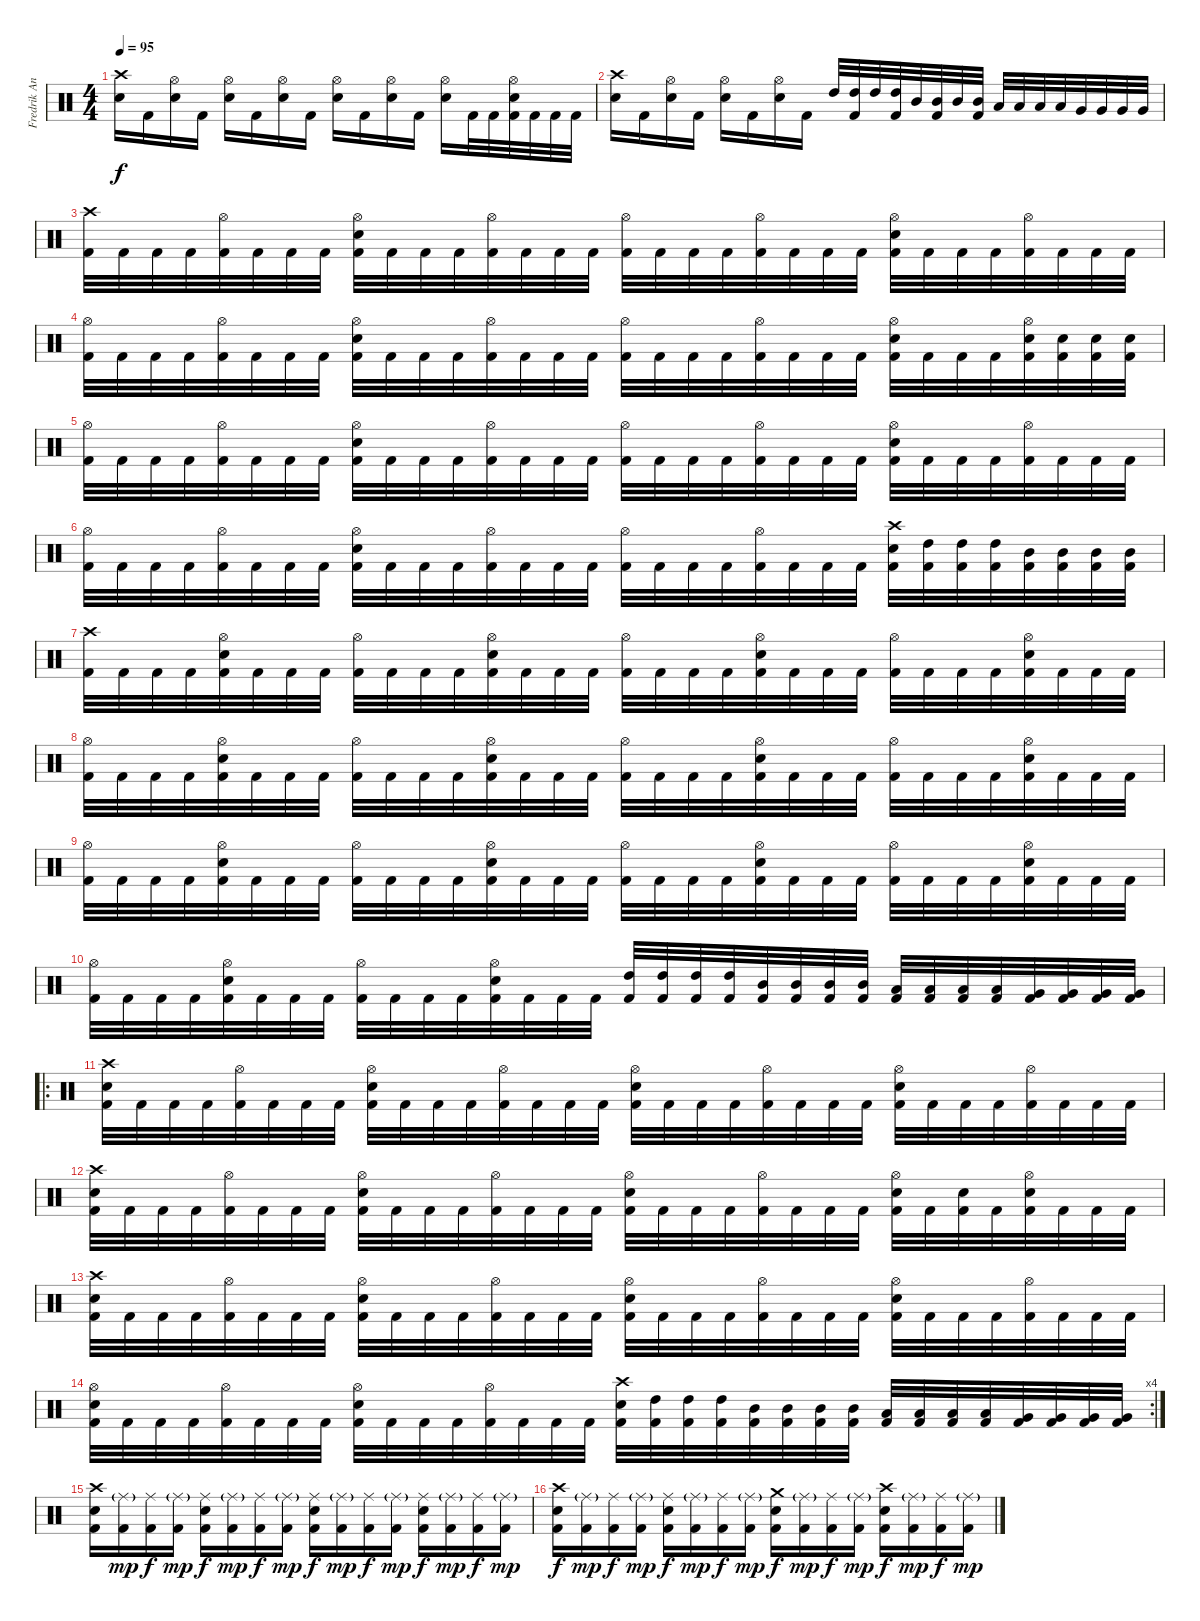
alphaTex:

\track ("Fredrik Andersson" "Fredrik An") {instrument percussion}
\staff {score}
\articulation defaults
\ts (4 4)
\tempo 95
\clef neutral
\ks c
("Crash high (hit)" "Electric Snare (hit)").16{dy f} "Kick (hit) 2".16 ("Hi-Hat (open)" "Electric Snare (hit)").16 "Kick (hit) 2".16 ("Hi-Hat (open)" "Electric Snare (hit)").16 "Kick (hit) 2".16 ("Hi-Hat (open)" "Electric Snare (hit)").16 "Kick (hit) 2".16 ("Hi-Hat (open)" "Electric Snare (hit)").16 "Kick (hit) 2".16 ("Hi-Hat (open)" "Electric Snare (hit)").16 "Kick (hit) 2".16 ("Hi-Hat (open)" "Electric Snare (hit)").16 "Kick (hit) 2".32 "Kick (hit) 2".32 ("Hi-Hat (open)" "Electric Snare (hit)" "Kick (hit) 2").32 "Kick (hit) 2".32 "Kick (hit) 2".32 "Kick (hit) 2".32 |
("Crash high (hit)" "Electric Snare (hit)").16 "Kick (hit) 2".16 ("Hi-Hat (open)" "Electric Snare (hit)").16 "Kick (hit) 2".16 ("Hi-Hat (open)" "Electric Snare (hit)").16 "Kick (hit) 2".16 ("Hi-Hat (open)" "Electric Snare (hit)").16 "Kick (hit) 2".16 "High Tom (hit)".32 ("High Tom (hit)" "Kick (hit) 2").32 "High Tom (hit)".32 ("High Tom (hit)" "Kick (hit) 2").32 "Mid Tom (hit)".32 ("Mid Tom (hit)" "Kick (hit) 2").32 "Mid Tom (hit)".32 ("Mid Tom (hit)" "Kick (hit) 2").32 "Low Tom (hit)".32 "Low Tom (hit)".32 "Low Tom (hit)".32 "Low Tom (hit)".32 "Very Low Tom (hit)".32 "Very Low Tom (hit)".32 "Very Low Tom (hit)".32 "Very Low Tom (hit)".32 |
("Crash high (hit)" "Kick (hit) 2").32 "Kick (hit) 2".32 "Kick (hit) 2".32 "Kick (hit) 2".32 ("Hi-Hat (open)" "Kick (hit) 2").32 "Kick (hit) 2".32 "Kick (hit) 2".32 "Kick (hit) 2".32 ("Hi-Hat (open)" "Electric Snare (hit)" "Kick (hit) 2").32 "Kick (hit) 2".32 "Kick (hit) 2".32 "Kick (hit) 2".32 ("Hi-Hat (open)" "Kick (hit) 2").32 "Kick (hit) 2".32 "Kick (hit) 2".32 "Kick (hit) 2".32 ("Hi-Hat (open)" "Kick (hit) 2").32 "Kick (hit) 2".32 "Kick (hit) 2".32 "Kick (hit) 2".32 ("Hi-Hat (open)" "Kick (hit) 2").32 "Kick (hit) 2".32 "Kick (hit) 2".32 "Kick (hit) 2".32 ("Hi-Hat (open)" "Electric Snare (hit)" "Kick (hit) 2").32 "Kick (hit) 2".32 "Kick (hit) 2".32 "Kick (hit) 2".32 ("Hi-Hat (open)" "Kick (hit) 2").32 "Kick (hit) 2".32 "Kick (hit) 2".32 "Kick (hit) 2".32 |
("Hi-Hat (open)" "Kick (hit) 2").32 "Kick (hit) 2".32 "Kick (hit) 2".32 "Kick (hit) 2".32 ("Hi-Hat (open)" "Kick (hit) 2").32 "Kick (hit) 2".32 "Kick (hit) 2".32 "Kick (hit) 2".32 ("Hi-Hat (open)" "Electric Snare (hit)" "Kick (hit) 2").32 "Kick (hit) 2".32 "Kick (hit) 2".32 "Kick (hit) 2".32 ("Hi-Hat (open)" "Kick (hit) 2").32 "Kick (hit) 2".32 "Kick (hit) 2".32 "Kick (hit) 2".32 ("Hi-Hat (open)" "Kick (hit) 2").32 "Kick (hit) 2".32 "Kick (hit) 2".32 "Kick (hit) 2".32 ("Hi-Hat (open)" "Kick (hit) 2").32 "Kick (hit) 2".32 "Kick (hit) 2".32 "Kick (hit) 2".32 ("Hi-Hat (open)" "Electric Snare (hit)" "Kick (hit) 2").32 "Kick (hit) 2".32 "Kick (hit) 2".32 "Kick (hit) 2".32 ("Hi-Hat (open)" "Electric Snare (hit)" "Kick (hit) 2").32 ("Electric Snare (hit)" "Kick (hit) 2").32 ("Electric Snare (hit)" "Kick (hit) 2").32 ("Electric Snare (hit)" "Kick (hit) 2").32 |
("Hi-Hat (open)" "Kick (hit) 2").32 "Kick (hit) 2".32 "Kick (hit) 2".32 "Kick (hit) 2".32 ("Hi-Hat (open)" "Kick (hit) 2").32 "Kick (hit) 2".32 "Kick (hit) 2".32 "Kick (hit) 2".32 ("Hi-Hat (open)" "Electric Snare (hit)" "Kick (hit) 2").32 "Kick (hit) 2".32 "Kick (hit) 2".32 "Kick (hit) 2".32 ("Hi-Hat (open)" "Kick (hit) 2").32 "Kick (hit) 2".32 "Kick (hit) 2".32 "Kick (hit) 2".32 ("Hi-Hat (open)" "Kick (hit) 2").32 "Kick (hit) 2".32 "Kick (hit) 2".32 "Kick (hit) 2".32 ("Hi-Hat (open)" "Kick (hit) 2").32 "Kick (hit) 2".32 "Kick (hit) 2".32 "Kick (hit) 2".32 ("Hi-Hat (open)" "Electric Snare (hit)" "Kick (hit) 2").32 "Kick (hit) 2".32 "Kick (hit) 2".32 "Kick (hit) 2".32 ("Hi-Hat (open)" "Kick (hit) 2").32 "Kick (hit) 2".32 "Kick (hit) 2".32 "Kick (hit) 2".32 |
("Hi-Hat (open)" "Kick (hit) 2").32 "Kick (hit) 2".32 "Kick (hit) 2".32 "Kick (hit) 2".32 ("Hi-Hat (open)" "Kick (hit) 2").32 "Kick (hit) 2".32 "Kick (hit) 2".32 "Kick (hit) 2".32 ("Hi-Hat (open)" "Electric Snare (hit)" "Kick (hit) 2").32 "Kick (hit) 2".32 "Kick (hit) 2".32 "Kick (hit) 2".32 ("Hi-Hat (open)" "Kick (hit) 2").32 "Kick (hit) 2".32 "Kick (hit) 2".32 "Kick (hit) 2".32 ("Hi-Hat (open)" "Kick (hit) 2").32 "Kick (hit) 2".32 "Kick (hit) 2".32 "Kick (hit) 2".32 ("Hi-Hat (open)" "Kick (hit) 2").32 "Kick (hit) 2".32 "Kick (hit) 2".32 "Kick (hit) 2".32 ("Crash high (hit)" "Electric Snare (hit)" "Kick (hit) 2").32 ("High Tom (hit)" "Kick (hit) 2").32 ("High Tom (hit)" "Kick (hit) 2").32 ("High Tom (hit)" "Kick (hit) 2").32 ("Mid Tom (hit)" "Kick (hit) 2").32 ("Mid Tom (hit)" "Kick (hit) 2").32 ("Mid Tom (hit)" "Kick (hit) 2").32 ("Mid Tom (hit)" "Kick (hit) 2").32 |
("Crash high (hit)" "Kick (hit) 2").32 "Kick (hit) 2".32 "Kick (hit) 2".32 "Kick (hit) 2".32 ("Hi-Hat (open)" "Electric Snare (hit)" "Kick (hit) 2").32 "Kick (hit) 2".32 "Kick (hit) 2".32 "Kick (hit) 2".32 ("Hi-Hat (open)" "Kick (hit) 2").32 "Kick (hit) 2".32 "Kick (hit) 2".32 "Kick (hit) 2".32 ("Hi-Hat (open)" "Electric Snare (hit)" "Kick (hit) 2").32 "Kick (hit) 2".32 "Kick (hit) 2".32 "Kick (hit) 2".32 ("Hi-Hat (open)" "Kick (hit) 2").32 "Kick (hit) 2".32 "Kick (hit) 2".32 "Kick (hit) 2".32 ("Hi-Hat (open)" "Electric Snare (hit)" "Kick (hit) 2").32 "Kick (hit) 2".32 "Kick (hit) 2".32 "Kick (hit) 2".32 ("Hi-Hat (open)" "Kick (hit) 2").32 "Kick (hit) 2".32 "Kick (hit) 2".32 "Kick (hit) 2".32 ("Hi-Hat (open)" "Electric Snare (hit)" "Kick (hit) 2").32 "Kick (hit) 2".32 "Kick (hit) 2".32 "Kick (hit) 2".32 |
("Hi-Hat (open)" "Kick (hit) 2").32 "Kick (hit) 2".32 "Kick (hit) 2".32 "Kick (hit) 2".32 ("Hi-Hat (open)" "Electric Snare (hit)" "Kick (hit) 2").32 "Kick (hit) 2".32 "Kick (hit) 2".32 "Kick (hit) 2".32 ("Hi-Hat (open)" "Kick (hit) 2").32 "Kick (hit) 2".32 "Kick (hit) 2".32 "Kick (hit) 2".32 ("Hi-Hat (open)" "Electric Snare (hit)" "Kick (hit) 2").32 "Kick (hit) 2".32 "Kick (hit) 2".32 "Kick (hit) 2".32 ("Hi-Hat (open)" "Kick (hit) 2").32 "Kick (hit) 2".32 "Kick (hit) 2".32 "Kick (hit) 2".32 ("Hi-Hat (open)" "Electric Snare (hit)" "Kick (hit) 2").32 "Kick (hit) 2".32 "Kick (hit) 2".32 "Kick (hit) 2".32 ("Hi-Hat (open)" "Kick (hit) 2").32 "Kick (hit) 2".32 "Kick (hit) 2".32 "Kick (hit) 2".32 ("Hi-Hat (open)" "Electric Snare (hit)" "Kick (hit) 2").32 "Kick (hit) 2".32 "Kick (hit) 2".32 "Kick (hit) 2".32 |
("Hi-Hat (open)" "Kick (hit) 2").32 "Kick (hit) 2".32 "Kick (hit) 2".32 "Kick (hit) 2".32 ("Hi-Hat (open)" "Electric Snare (hit)" "Kick (hit) 2").32 "Kick (hit) 2".32 "Kick (hit) 2".32 "Kick (hit) 2".32 ("Hi-Hat (open)" "Kick (hit) 2").32 "Kick (hit) 2".32 "Kick (hit) 2".32 "Kick (hit) 2".32 ("Hi-Hat (open)" "Electric Snare (hit)" "Kick (hit) 2").32 "Kick (hit) 2".32 "Kick (hit) 2".32 "Kick (hit) 2".32 ("Hi-Hat (open)" "Kick (hit) 2").32 "Kick (hit) 2".32 "Kick (hit) 2".32 "Kick (hit) 2".32 ("Hi-Hat (open)" "Electric Snare (hit)" "Kick (hit) 2").32 "Kick (hit) 2".32 "Kick (hit) 2".32 "Kick (hit) 2".32 ("Hi-Hat (open)" "Kick (hit) 2").32 "Kick (hit) 2".32 "Kick (hit) 2".32 "Kick (hit) 2".32 ("Hi-Hat (open)" "Electric Snare (hit)" "Kick (hit) 2").32 "Kick (hit) 2".32 "Kick (hit) 2".32 "Kick (hit) 2".32 |
("Hi-Hat (open)" "Kick (hit) 2").32 "Kick (hit) 2".32 "Kick (hit) 2".32 "Kick (hit) 2".32 ("Hi-Hat (open)" "Electric Snare (hit)" "Kick (hit) 2").32 "Kick (hit) 2".32 "Kick (hit) 2".32 "Kick (hit) 2".32 ("Hi-Hat (open)" "Kick (hit) 2").32 "Kick (hit) 2".32 "Kick (hit) 2".32 "Kick (hit) 2".32 ("Hi-Hat (open)" "Electric Snare (hit)" "Kick (hit) 2").32 "Kick (hit) 2".32 "Kick (hit) 2".32 "Kick (hit) 2".32 ("High Tom (hit)" "Kick (hit) 2").32 ("High Tom (hit)" "Kick (hit) 2").32 ("High Tom (hit)" "Kick (hit) 2").32 ("High Tom (hit)" "Kick (hit) 2").32 ("Mid Tom (hit)" "Kick (hit) 2").32 ("Mid Tom (hit)" "Kick (hit) 2").32 ("Mid Tom (hit)" "Kick (hit) 2").32 ("Mid Tom (hit)" "Kick (hit) 2").32 ("Low Tom (hit)" "Kick (hit) 2").32 ("Low Tom (hit)" "Kick (hit) 2").32 ("Low Tom (hit)" "Kick (hit) 2").32 ("Low Tom (hit)" "Kick (hit) 2").32 ("Very Low Tom (hit)" "Kick (hit) 2").32 ("Very Low Tom (hit)" "Kick (hit) 2").32 ("Very Low Tom (hit)" "Kick (hit) 2").32 ("Very Low Tom (hit)" "Kick (hit) 2").32 |
\ro
("Crash high (hit)" "Electric Snare (hit)" "Kick (hit) 2").32 "Kick (hit) 2".32 "Kick (hit) 2".32 "Kick (hit) 2".32 ("Hi-Hat (open)" "Kick (hit) 2").32 "Kick (hit) 2".32 "Kick (hit) 2".32 "Kick (hit) 2".32 ("Hi-Hat (open)" "Electric Snare (hit)" "Kick (hit) 2").32 "Kick (hit) 2".32 "Kick (hit) 2".32 "Kick (hit) 2".32 ("Hi-Hat (open)" "Kick (hit) 2").32 "Kick (hit) 2".32 "Kick (hit) 2".32 "Kick (hit) 2".32 ("Hi-Hat (open)" "Electric Snare (hit)" "Kick (hit) 2").32 "Kick (hit) 2".32 "Kick (hit) 2".32 "Kick (hit) 2".32 ("Hi-Hat (open)" "Kick (hit) 2").32 "Kick (hit) 2".32 "Kick (hit) 2".32 "Kick (hit) 2".32 ("Hi-Hat (open)" "Electric Snare (hit)" "Kick (hit) 2").32 "Kick (hit) 2".32 "Kick (hit) 2".32 "Kick (hit) 2".32 ("Hi-Hat (open)" "Kick (hit) 2").32 "Kick (hit) 2".32 "Kick (hit) 2".32 "Kick (hit) 2".32 |
("Crash high (hit)" "Electric Snare (hit)" "Kick (hit) 2").32 "Kick (hit) 2".32 "Kick (hit) 2".32 "Kick (hit) 2".32 ("Hi-Hat (open)" "Kick (hit) 2").32 "Kick (hit) 2".32 "Kick (hit) 2".32 "Kick (hit) 2".32 ("Hi-Hat (open)" "Electric Snare (hit)" "Kick (hit) 2").32 "Kick (hit) 2".32 "Kick (hit) 2".32 "Kick (hit) 2".32 ("Hi-Hat (open)" "Kick (hit) 2").32 "Kick (hit) 2".32 "Kick (hit) 2".32 "Kick (hit) 2".32 ("Hi-Hat (open)" "Electric Snare (hit)" "Kick (hit) 2").32 "Kick (hit) 2".32 "Kick (hit) 2".32 "Kick (hit) 2".32 ("Hi-Hat (open)" "Kick (hit) 2").32 "Kick (hit) 2".32 "Kick (hit) 2".32 "Kick (hit) 2".32 ("Hi-Hat (open)" "Electric Snare (hit)" "Kick (hit) 2").32 "Kick (hit) 2".32 ("Electric Snare (hit)" "Kick (hit) 2").32 "Kick (hit) 2".32 ("Hi-Hat (open)" "Electric Snare (hit)" "Kick (hit) 2").32 "Kick (hit) 2".32 "Kick (hit) 2".32 "Kick (hit) 2".32 |
("Crash high (hit)" "Electric Snare (hit)" "Kick (hit) 2").32 "Kick (hit) 2".32 "Kick (hit) 2".32 "Kick (hit) 2".32 ("Hi-Hat (open)" "Kick (hit) 2").32 "Kick (hit) 2".32 "Kick (hit) 2".32 "Kick (hit) 2".32 ("Hi-Hat (open)" "Electric Snare (hit)" "Kick (hit) 2").32 "Kick (hit) 2".32 "Kick (hit) 2".32 "Kick (hit) 2".32 ("Hi-Hat (open)" "Kick (hit) 2").32 "Kick (hit) 2".32 "Kick (hit) 2".32 "Kick (hit) 2".32 ("Hi-Hat (open)" "Electric Snare (hit)" "Kick (hit) 2").32 "Kick (hit) 2".32 "Kick (hit) 2".32 "Kick (hit) 2".32 ("Hi-Hat (open)" "Kick (hit) 2").32 "Kick (hit) 2".32 "Kick (hit) 2".32 "Kick (hit) 2".32 ("Hi-Hat (open)" "Electric Snare (hit)" "Kick (hit) 2").32 "Kick (hit) 2".32 "Kick (hit) 2".32 "Kick (hit) 2".32 ("Hi-Hat (open)" "Kick (hit) 2").32 "Kick (hit) 2".32 "Kick (hit) 2".32 "Kick (hit) 2".32 |
\rc 4
("Hi-Hat (open)" "Electric Snare (hit)" "Kick (hit) 2").32 "Kick (hit) 2".32 "Kick (hit) 2".32 "Kick (hit) 2".32 ("Hi-Hat (open)" "Kick (hit) 2").32 "Kick (hit) 2".32 "Kick (hit) 2".32 "Kick (hit) 2".32 ("Hi-Hat (open)" "Electric Snare (hit)" "Kick (hit) 2").32 "Kick (hit) 2".32 "Kick (hit) 2".32 "Kick (hit) 2".32 ("Hi-Hat (open)" "Kick (hit) 2").32 "Kick (hit) 2".32 "Kick (hit) 2".32 "Kick (hit) 2".32 ("Crash high (hit)" "Electric Snare (hit)" "Kick (hit) 2").32 ("High Tom (hit)" "Kick (hit) 2").32 ("High Tom (hit)" "Kick (hit) 2").32 ("High Tom (hit)" "Kick (hit) 2").32 ("Mid Tom (hit)" "Kick (hit) 2").32 ("Mid Tom (hit)" "Kick (hit) 2").32 ("Mid Tom (hit)" "Kick (hit) 2").32 ("Mid Tom (hit)" "Kick (hit) 2").32 ("Low Tom (hit)" "Kick (hit) 2").32 ("Low Tom (hit)" "Kick (hit) 2").32 ("Low Tom (hit)" "Kick (hit) 2").32 ("Low Tom (hit)" "Kick (hit) 2").32 ("Very Low Tom (hit)" "Kick (hit) 2").32 ("Very Low Tom (hit)" "Kick (hit) 2").32 ("Very Low Tom (hit)" "Kick (hit) 2").32 ("Very Low Tom (hit)" "Kick (hit) 2").32 |
("Crash high (hit)" "Electric Snare (hit)" "Kick (hit) 2").16 ("Ride (middle)"{g} "Kick (hit) 2").16{dy mp} ("Ride (middle)" "Kick (hit) 2").16{dy f} ("Ride (middle)"{g} "Kick (hit) 2").16{dy mp} ("Ride (middle)" "Electric Snare (hit)" "Kick (hit) 2").16{dy f} ("Ride (middle)"{g} "Kick (hit) 2").16{dy mp} ("Ride (middle)" "Kick (hit) 2").16{dy f} ("Ride (middle)"{g} "Kick (hit) 2").16{dy mp} ("Ride (middle)" "Electric Snare (hit)" "Kick (hit) 2").16{dy f} ("Ride (middle)"{g} "Kick (hit) 2").16{dy mp} ("Ride (middle)" "Kick (hit) 2").16{dy f} ("Ride (middle)"{g} "Kick (hit) 2").16{dy mp} ("Ride (middle)" "Electric Snare (hit)" "Kick (hit) 2").16{dy f} ("Ride (middle)"{g} "Kick (hit) 2").16{dy mp} ("Ride (middle)" "Kick (hit) 2").16{dy f} ("Ride (middle)"{g} "Kick (hit) 2").16{dy mp} |
("Crash high (hit)" "Electric Snare (hit)" "Kick (hit) 2").16{dy f} ("Ride (middle)"{g} "Kick (hit) 2").16{dy mp} ("Ride (middle)" "Kick (hit) 2").16{dy f} ("Ride (middle)"{g} "Kick (hit) 2").16{dy mp} ("Ride (middle)" "Electric Snare (hit)" "Kick (hit) 2").16{dy f} ("Ride (middle)"{g} "Kick (hit) 2").16{dy mp} ("Ride (middle)" "Kick (hit) 2").16{dy f} ("Ride (middle)"{g} "Kick (hit) 2").16{dy mp} ("Crash medium (hit)" "Electric Snare (hit)" "Kick (hit) 2").16{dy f} ("Ride (middle)"{g} "Kick (hit) 2").16{dy mp} ("Ride (middle)" "Kick (hit) 2").16{dy f} ("Ride (middle)"{g} "Kick (hit) 2").16{dy mp} ("Crash high (hit)" "Electric Snare (hit)" "Kick (hit) 2").16{dy f} ("Ride (middle)"{g} "Kick (hit) 2").16{dy mp} ("Ride (middle)" "Kick (hit) 2").16{dy f} ("Ride (middle)"{g} "Kick (hit) 2").16{dy mp}
